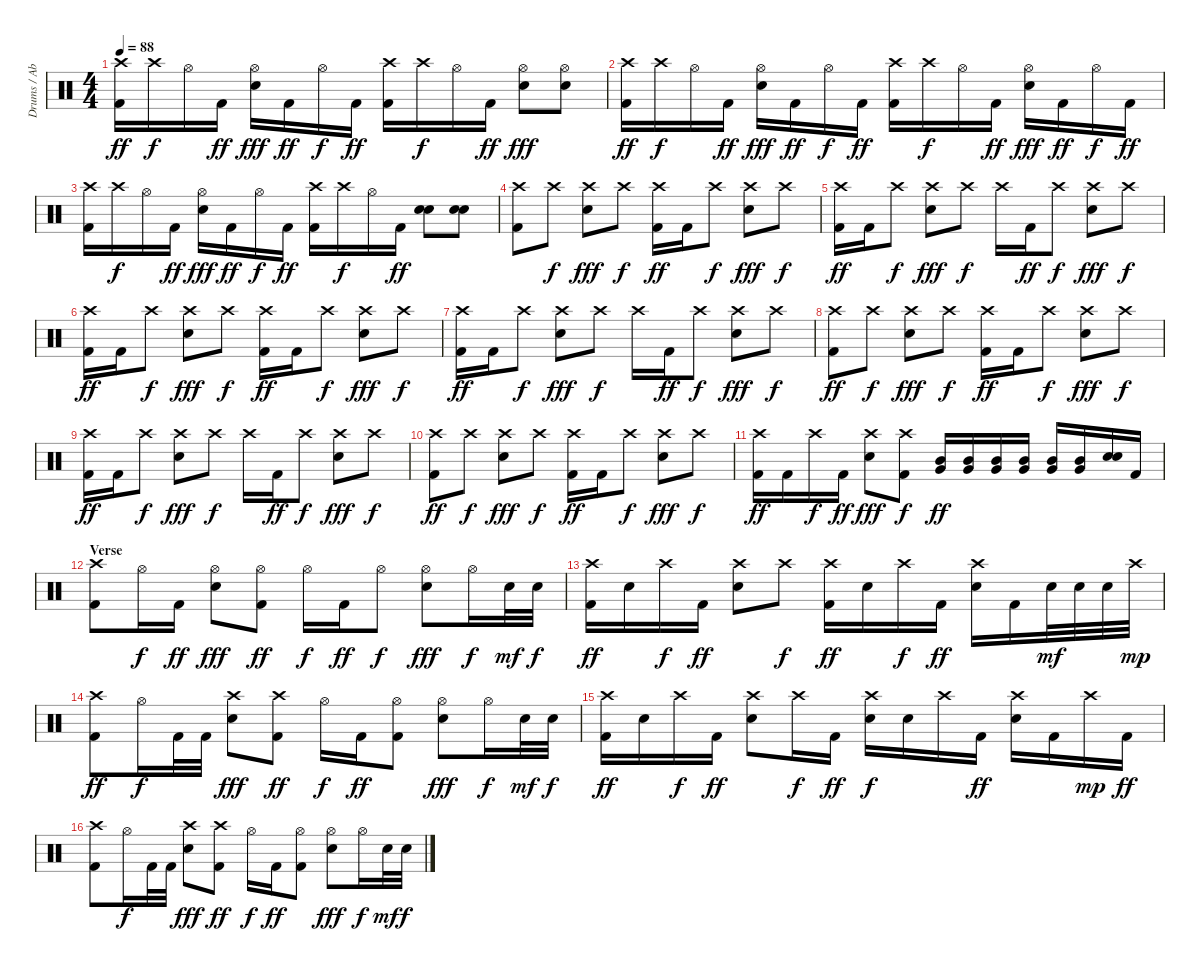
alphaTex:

\track ("Drums / Abe Cunningham" "Drums / Ab") {instrument percussion}
\staff {score}
\articulation defaults
\ts (4 4)
\tempo 88
\clef neutral
\ks c
("Crash high (hit)" "Kick (hit) 2").16{dy ff} "Crash high (hit)".16{dy f} "Hi-Hat (open)".16 "Kick (hit) 2".16{dy ff} ("Hi-Hat (open)" "Electric Snare (hit)").16{dy fff} "Kick (hit) 2".16{dy ff} "Hi-Hat (open)".16{dy f} "Kick (hit) 2".16{dy ff} ("Crash high (hit)" "Kick (hit) 2").16 "Crash high (hit)".16{dy f} "Hi-Hat (open)".16 "Kick (hit) 2".16{dy ff} ("Hi-Hat (open)" "Electric Snare (hit)").8{dy fff} ("Hi-Hat (open)" "Electric Snare (hit)").8 |
("Crash high (hit)" "Kick (hit) 2").16{dy ff} "Crash high (hit)".16{dy f} "Hi-Hat (open)".16 "Kick (hit) 2".16{dy ff} ("Hi-Hat (open)" "Electric Snare (hit)").16{dy fff} "Kick (hit) 2".16{dy ff} "Hi-Hat (open)".16{dy f} "Kick (hit) 2".16{dy ff} ("Crash high (hit)" "Kick (hit) 2").16 "Crash high (hit)".16{dy f} "Hi-Hat (open)".16 "Kick (hit) 2".16{dy ff} ("Hi-Hat (open)" "Electric Snare (hit)").16{dy fff} "Kick (hit) 2".16{dy ff} "Hi-Hat (open)".16{dy f} "Kick (hit) 2".16{dy ff} |
("Crash high (hit)" "Kick (hit) 2").16 "Crash high (hit)".16{dy f} "Hi-Hat (open)".16 "Kick (hit) 2".16{dy ff} ("Hi-Hat (open)" "Electric Snare (hit)").16{dy fff} "Kick (hit) 2".16{dy ff} "Hi-Hat (open)".16{dy f} "Kick (hit) 2".16{dy ff} ("Crash high (hit)" "Kick (hit) 2").16 "Crash high (hit)".16{dy f} "Hi-Hat (open)".16 "Kick (hit) 2".16{dy ff} ("Electric Snare (hit)" "Electric Snare (hit)").8 ("Electric Snare (hit)" "Electric Snare (hit)").8 |
("Crash high (hit)" "Kick (hit) 2").8 "Crash high (hit)".8{dy f} ("Crash high (hit)" "Electric Snare (hit)").8{dy fff} "Crash high (hit)".8{dy f} ("Crash high (hit)" "Kick (hit) 2").16{dy ff} "Kick (hit) 2".16 "Crash high (hit)".8{dy f} ("Crash high (hit)" "Electric Snare (hit)").8{dy fff} "Crash high (hit)".8{dy f} |
("Crash high (hit)" "Kick (hit) 2").16{dy ff} "Kick (hit) 2".16 "Crash high (hit)".8{dy f} ("Crash high (hit)" "Electric Snare (hit)").8{dy fff} "Crash high (hit)".8{dy f} "Crash high (hit)".16 "Kick (hit) 2".16{dy ff} "Crash high (hit)".8{dy f} ("Crash high (hit)" "Electric Snare (hit)").8{dy fff} "Crash high (hit)".8{dy f} |
("Crash high (hit)" "Kick (hit) 2").16{dy ff} "Kick (hit) 2".16 "Crash high (hit)".8{dy f} ("Crash high (hit)" "Electric Snare (hit)").8{dy fff} "Crash high (hit)".8{dy f} ("Crash high (hit)" "Kick (hit) 2").16{dy ff} "Kick (hit) 2".16 "Crash high (hit)".8{dy f} ("Crash high (hit)" "Electric Snare (hit)").8{dy fff} "Crash high (hit)".8{dy f} |
("Crash high (hit)" "Kick (hit) 2").16{dy ff} "Kick (hit) 2".16 "Crash high (hit)".8{dy f} ("Crash high (hit)" "Electric Snare (hit)").8{dy fff} "Crash high (hit)".8{dy f} "Crash high (hit)".16 "Kick (hit) 2".16{dy ff} "Crash high (hit)".8{dy f} ("Crash high (hit)" "Electric Snare (hit)").8{dy fff} "Crash high (hit)".8{dy f} |
("Crash high (hit)" "Kick (hit) 2").8{dy ff} "Crash high (hit)".8{dy f} ("Crash high (hit)" "Electric Snare (hit)").8{dy fff} "Crash high (hit)".8{dy f} ("Crash high (hit)" "Kick (hit) 2").16{dy ff} "Kick (hit) 2".16 "Crash high (hit)".8{dy f} ("Crash high (hit)" "Electric Snare (hit)").8{dy fff} "Crash high (hit)".8{dy f} |
("Crash high (hit)" "Kick (hit) 2").16{dy ff} "Kick (hit) 2".16 "Crash high (hit)".8{dy f} ("Crash high (hit)" "Electric Snare (hit)").8{dy fff} "Crash high (hit)".8{dy f} "Crash high (hit)".16 "Kick (hit) 2".16{dy ff} "Crash high (hit)".8{dy f} ("Crash high (hit)" "Electric Snare (hit)").8{dy fff} "Crash high (hit)".8{dy f} |
("Crash high (hit)" "Kick (hit) 2").8{dy ff} "Crash high (hit)".8{dy f} ("Crash high (hit)" "Electric Snare (hit)").8{dy fff} "Crash high (hit)".8{dy f} ("Crash high (hit)" "Kick (hit) 2").16{dy ff} "Kick (hit) 2".16 "Crash high (hit)".8{dy f} ("Crash high (hit)" "Electric Snare (hit)").8{dy fff} "Crash high (hit)".8{dy f} |
("Crash high (hit)" "Kick (hit) 2").16{dy ff} "Kick (hit) 2".16 "Crash high (hit)".16{dy f} "Kick (hit) 2".16{dy ff} ("Crash high (hit)" "Electric Snare (hit)").8{dy fff} ("Crash high (hit)" "Kick (hit) 2").8{dy f} ("Mid Tom (hit)" "Very Low Tom (hit)").16{dy ff} ("Mid Tom (hit)" "Very Low Tom (hit)").16 ("Mid Tom (hit)" "Very Low Tom (hit)").16 ("Mid Tom (hit)" "Very Low Tom (hit)").16 ("Mid Tom (hit)" "Very Low Tom (hit)").16 ("Mid Tom (hit)" "Very Low Tom (hit)").16 ("Electric Snare (hit)" "Electric Snare (hit)").16 "Kick (hit) 2".16 |
\section ("" "Verse")
("Crash high (hit)" "Kick (hit) 2").8 "Hi-Hat (open)".16{dy f} "Kick (hit) 2".16{dy ff} ("Hi-Hat (open)" "Electric Snare (hit)").8{dy fff} ("Hi-Hat (open)" "Kick (hit) 2").8{dy ff} "Hi-Hat (open)".16{dy f} "Kick (hit) 2".16{dy ff} "Hi-Hat (open)".8{dy f} ("Hi-Hat (open)" "Electric Snare (hit)").8{dy fff} "Hi-Hat (open)".16{dy f} "Electric Snare (hit)".32{dy mf} "Electric Snare (hit)".32{dy f} |
("Crash high (hit)" "Kick (hit) 2").16{dy ff} "Electric Snare (hit)".16 "Crash high (hit)".16{dy f} "Kick (hit) 2".16{dy ff} ("Crash high (hit)" "Electric Snare (hit)").8 "Crash high (hit)".8{dy f} ("Crash high (hit)" "Kick (hit) 2").16{dy ff} "Electric Snare (hit)".16 "Crash high (hit)".16{dy f} "Kick (hit) 2".16{dy ff} ("Crash high (hit)" "Electric Snare (hit)").16 "Kick (hit) 2".16 "Electric Snare (hit)".32{dy mf} "Electric Snare (hit)".32 "Electric Snare (hit)".32 "Crash high (hit)".32{dy mp} |
("Crash high (hit)" "Kick (hit) 2").8{dy ff} "Hi-Hat (open)".16{dy f} "Kick (hit) 2".32 "Kick (hit) 2".32 ("Crash high (hit)" "Electric Snare (hit)").8{dy fff} ("Crash high (hit)" "Kick (hit) 2").8{dy ff} "Hi-Hat (open)".16{dy f} "Kick (hit) 2".16{dy ff} ("Hi-Hat (open)" "Kick (hit) 2").8 ("Hi-Hat (open)" "Electric Snare (hit)").8{dy fff} "Hi-Hat (open)".16{dy f} "Electric Snare (hit)".32{dy mf} "Electric Snare (hit)".32{dy f} |
("Crash high (hit)" "Kick (hit) 2").16{dy ff} "Electric Snare (hit)".16 "Crash high (hit)".16{dy f} "Kick (hit) 2".16{dy ff} ("Crash high (hit)" "Electric Snare (hit)").8 "Crash high (hit)".16{dy f} "Kick (hit) 2".16{dy ff} ("Crash high (hit)" "Electric Snare (hit)").16{dy f} "Electric Snare (hit)".16 "Crash high (hit)".16 "Kick (hit) 2".16{dy ff} ("Crash high (hit)" "Electric Snare (hit)").16 "Kick (hit) 2".16 "Crash high (hit)".16{dy mp} "Kick (hit) 2".16{dy ff} |
("Crash high (hit)" "Kick (hit) 2").8 "Hi-Hat (open)".16{dy f} "Kick (hit) 2".32 "Kick (hit) 2".32 ("Crash high (hit)" "Electric Snare (hit)").8{dy fff} ("Crash high (hit)" "Kick (hit) 2").8{dy ff} "Hi-Hat (open)".16{dy f} "Kick (hit) 2".16{dy ff} ("Hi-Hat (open)" "Kick (hit) 2").8 ("Hi-Hat (open)" "Electric Snare (hit)").8{dy fff} "Hi-Hat (open)".16{dy f} "Electric Snare (hit)".32{dy mf} "Electric Snare (hit)".32{dy f}
